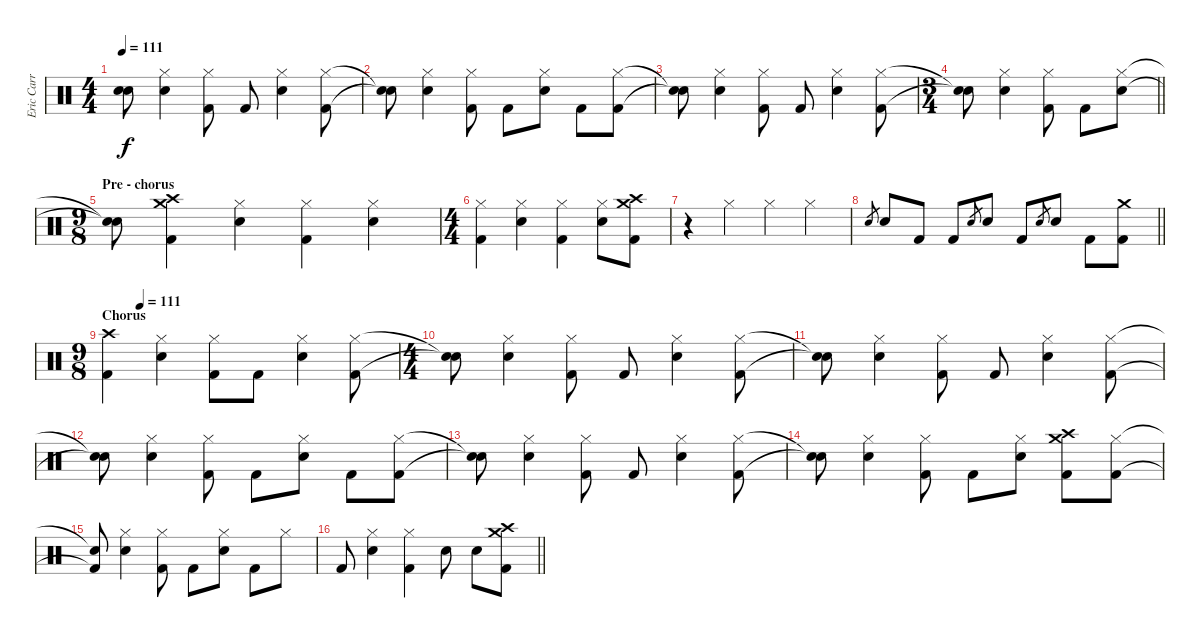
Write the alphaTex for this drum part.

\track ("Eric Carr" "Eric Carr") {instrument percussion}
\staff {score}
\articulation defaults
\ts (4 4)
\tempo 111
\clef neutral
\ks c
("Snare (hit)"{t} "Snare (hit)"{t}).8{dy f} ("Hi-Hat (closed)" "Snare (hit) 2").4 ("Hi-Hat (closed)" "Kick (hit) 2").8 "Kick (hit) 2".8 ("Hi-Hat (closed)" "Snare (hit) 2").4 ("Hi-Hat (closed)" "Kick (hit) 2").8 |
("Snare (hit)"{t} "Snare (hit)"{t}).8 ("Hi-Hat (closed)" "Snare (hit) 2").4 ("Hi-Hat (closed)" "Kick (hit) 2").8 "Kick (hit) 2".8 ("Hi-Hat (closed)" "Snare (hit) 2").8 "Kick (hit) 2".8 ("Hi-Hat (closed)" "Kick (hit) 2").8 |
("Snare (hit)"{t} "Snare (hit)"{t}).8 ("Hi-Hat (closed)" "Snare (hit) 2").4 ("Hi-Hat (closed)" "Kick (hit) 2").8 "Kick (hit) 2".8 ("Hi-Hat (closed)" "Snare (hit) 2").4 ("Hi-Hat (closed)" "Kick (hit) 2").8 |
\ts (3 4)
\barLineRight lightlight
("Snare (hit)"{t} "Snare (hit)"{t}).8 ("Hi-Hat (closed)" "Snare (hit) 2").4 ("Hi-Hat (closed)" "Kick (hit) 2").8 "Kick (hit) 2".8 ("Hi-Hat (closed)" "Snare (hit) 2").8 |
\ts (9 8)
\section ("" "Pre - chorus")
("Snare (hit)"{t} "Snare (hit)"{t}).8 ("Crash medium (hit)" "Crash high (hit)" "Kick (hit) 2").4 ("Hi-Hat (closed)" "Snare (hit) 2").4 ("Hi-Hat (closed)" "Kick (hit) 2").4 ("Hi-Hat (closed)" "Snare (hit) 2").4 |
\ts (4 4)
("Hi-Hat (closed)" "Kick (hit) 2").4 ("Hi-Hat (closed)" "Snare (hit) 2").4 ("Hi-Hat (closed)" "Kick (hit) 2").4 ("Hi-Hat (closed)" "Snare (hit) 2").8 ("Crash medium (hit)" "Crash high (hit)" "Kick (hit) 2").8 |
r.4 "Hi-Hat (closed)".4 "Hi-Hat (closed)".4 "Hi-Hat (closed)".4 |
\barLineRight lightlight "Snare (hit) 2".8{gr} "Snare (hit) 2".8 "Kick (hit) 2".8 "Kick (hit) 2".8 "Snare (hit) 2".8{gr} "Snare (hit) 2".8 "Kick (hit) 2".8 "Snare (hit) 2".8{gr} "Snare (hit) 2".8 "Kick (hit) 2".8
("Crash medium (hit)" "Kick (hit) 2").8 |
\ts (9 8)
\section ("" "Chorus")
\tempo (111 0.1111111111111111)
("Crash high (hit)" "Kick (hit) 2").4 ("Hi-Hat (closed)" "Snare (hit) 2").4 ("Hi-Hat (closed)" "Kick (hit) 2").8 "Kick (hit) 2".8 ("Hi-Hat (closed)" "Snare (hit) 2").4 ("Hi-Hat (closed)" "Kick (hit) 2").8 |
\ts (4 4)
("Snare (hit)"{t} "Snare (hit)"{t}).8 ("Hi-Hat (closed)" "Snare (hit) 2").4 ("Hi-Hat (closed)" "Kick (hit) 2").8 "Kick (hit) 2".8 ("Hi-Hat (closed)" "Snare (hit) 2").4 ("Hi-Hat (closed)" "Kick (hit) 2").8 |
("Snare (hit)"{t} "Snare (hit)"{t}).8 ("Hi-Hat (closed)" "Snare (hit) 2").4 ("Hi-Hat (closed)" "Kick (hit) 2").8 "Kick (hit) 2".8 ("Hi-Hat (closed)" "Snare (hit) 2").4 ("Hi-Hat (closed)" "Kick (hit) 2").8 |
("Snare (hit)"{t} "Snare (hit)"{t}).8 ("Hi-Hat (closed)" "Snare (hit) 2").4 ("Hi-Hat (closed)" "Kick (hit) 2").8 "Kick (hit) 2".8 ("Hi-Hat (closed)" "Snare (hit) 2").8 "Kick (hit) 2".8 ("Hi-Hat (closed)" "Kick (hit) 2").8 |
("Snare (hit)"{t} "Snare (hit)"{t}).8 ("Hi-Hat (closed)" "Snare (hit) 2").4 ("Hi-Hat (closed)" "Kick (hit) 2").8 "Kick (hit) 2".8 ("Hi-Hat (closed)" "Snare (hit) 2").4 ("Hi-Hat (closed)" "Kick (hit) 2").8 |
("Snare (hit)"{t} "Snare (hit)"{t}).8 ("Hi-Hat (closed)" "Snare (hit) 2").4 ("Hi-Hat (closed)" "Kick (hit) 2").8 "Kick (hit) 2".8 ("Hi-Hat (closed)" "Snare (hit) 2").8 ("Crash medium (hit)" "Crash high (hit)" "Kick (hit) 2").8 ("Hi-Hat (closed)" "Kick (hit) 2").8 |
("Snare (hit)"{t} "Kick (hit) 2"{t}).8 ("Hi-Hat (closed)" "Snare (hit) 2").4 ("Hi-Hat (closed)" "Kick (hit) 2").8 "Kick (hit) 2".8 ("Hi-Hat (closed)" "Snare (hit) 2").8 "Kick (hit) 2".8 "Hi-Hat (closed)".8 |
\barLineRight lightlight "Kick (hit) 2".8
("Hi-Hat (closed)" "Snare (hit) 2").4 ("Hi-Hat (closed)" "Kick (hit) 2").4 "Snare (hit) 2".8 "Snare (hit) 2".8 ("Crash medium (hit)" "Crash high (hit)" "Kick (hit) 2").8
